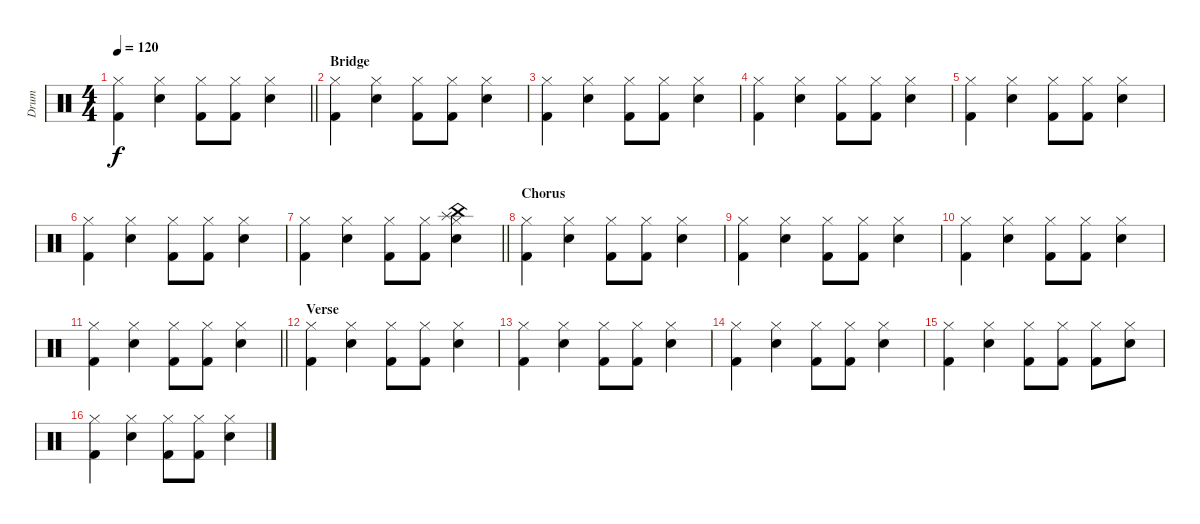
\track ("Drum" "Drum") {instrument percussion}
\staff {score}
\articulation defaults
\ts (4 4)
\tempo 120
\clef neutral
\barLineRight lightlight
\ks c
("Hi-Hat (closed)" "Kick (hit) 2").4{dy f} ("Snare (hit) 2" "Hi-Hat (closed)").4 ("Hi-Hat (closed)" "Kick (hit) 2").8 ("Hi-Hat (closed)" "Kick (hit) 2").8 ("Snare (hit) 2" "Hi-Hat (closed)").4 |
\section ("" "Bridge")
("Hi-Hat (closed)" "Kick (hit) 2").4 ("Snare (hit) 2" "Hi-Hat (closed)").4 ("Hi-Hat (closed)" "Kick (hit) 2").8 ("Hi-Hat (closed)" "Kick (hit) 2").8 ("Snare (hit) 2" "Hi-Hat (closed)").4 |
("Hi-Hat (closed)" "Kick (hit) 2").4 ("Snare (hit) 2" "Hi-Hat (closed)").4 ("Hi-Hat (closed)" "Kick (hit) 2").8 ("Hi-Hat (closed)" "Kick (hit) 2").8 ("Snare (hit) 2" "Hi-Hat (closed)").4 |
("Hi-Hat (closed)" "Kick (hit) 2").4 ("Snare (hit) 2" "Hi-Hat (closed)").4 ("Hi-Hat (closed)" "Kick (hit) 2").8 ("Hi-Hat (closed)" "Kick (hit) 2").8 ("Snare (hit) 2" "Hi-Hat (closed)").4 |
("Hi-Hat (closed)" "Kick (hit) 2").4 ("Snare (hit) 2" "Hi-Hat (closed)").4 ("Hi-Hat (closed)" "Kick (hit) 2").8 ("Hi-Hat (closed)" "Kick (hit) 2").8 ("Snare (hit) 2" "Hi-Hat (closed)").4 |
("Hi-Hat (closed)" "Kick (hit) 2").4 ("Snare (hit) 2" "Hi-Hat (closed)").4 ("Hi-Hat (closed)" "Kick (hit) 2").8 ("Hi-Hat (closed)" "Kick (hit) 2").8 ("Snare (hit) 2" "Hi-Hat (closed)").4 |
\barLineRight lightlight
("Hi-Hat (closed)" "Kick (hit) 2").4 ("Snare (hit) 2" "Hi-Hat (closed)").4 ("Hi-Hat (closed)" "Kick (hit) 2").8 ("Hi-Hat (closed)" "Kick (hit) 2").8 ("Snare (hit) 2" "Hi-Hat (closed)" "Splash (hit)" "China (hit)").4 |
\section ("" "Chorus")
("Hi-Hat (closed)" "Kick (hit) 2").4 ("Snare (hit) 2" "Hi-Hat (closed)").4 ("Hi-Hat (closed)" "Kick (hit) 2").8 ("Hi-Hat (closed)" "Kick (hit) 2").8 ("Snare (hit) 2" "Hi-Hat (closed)").4 |
("Hi-Hat (closed)" "Kick (hit) 2").4 ("Snare (hit) 2" "Hi-Hat (closed)").4 ("Hi-Hat (closed)" "Kick (hit) 2").8 ("Hi-Hat (closed)" "Kick (hit) 2").8 ("Snare (hit) 2" "Hi-Hat (closed)").4 |
("Hi-Hat (closed)" "Kick (hit) 2").4 ("Snare (hit) 2" "Hi-Hat (closed)").4 ("Hi-Hat (closed)" "Kick (hit) 2").8 ("Hi-Hat (closed)" "Kick (hit) 2").8 ("Snare (hit) 2" "Hi-Hat (closed)").4 |
\barLineRight lightlight
("Hi-Hat (closed)" "Kick (hit) 2").4 ("Snare (hit) 2" "Hi-Hat (closed)").4 ("Hi-Hat (closed)" "Kick (hit) 2").8 ("Hi-Hat (closed)" "Kick (hit) 2").8 ("Snare (hit) 2" "Hi-Hat (closed)").4 |
\section ("" "Verse")
("Hi-Hat (closed)" "Kick (hit) 2").4 ("Snare (hit) 2" "Hi-Hat (closed)").4 ("Hi-Hat (closed)" "Kick (hit) 2").8 ("Hi-Hat (closed)" "Kick (hit) 2").8 ("Snare (hit) 2" "Hi-Hat (closed)").4 |
("Hi-Hat (closed)" "Kick (hit) 2").4 ("Snare (hit) 2" "Hi-Hat (closed)").4 ("Hi-Hat (closed)" "Kick (hit) 2").8 ("Hi-Hat (closed)" "Kick (hit) 2").8 ("Snare (hit) 2" "Hi-Hat (closed)").4 |
("Hi-Hat (closed)" "Kick (hit) 2").4 ("Snare (hit) 2" "Hi-Hat (closed)").4 ("Hi-Hat (closed)" "Kick (hit) 2").8 ("Hi-Hat (closed)" "Kick (hit) 2").8 ("Snare (hit) 2" "Hi-Hat (closed)").4 |
("Hi-Hat (closed)" "Kick (hit) 2").4 ("Snare (hit) 2" "Hi-Hat (closed)").4 ("Hi-Hat (closed)" "Kick (hit) 2").8 ("Hi-Hat (closed)" "Kick (hit) 2").8 ("Hi-Hat (closed)" "Kick (hit) 2").8 ("Snare (hit) 2" "Hi-Hat (closed)").8 |
("Hi-Hat (closed)" "Kick (hit) 2").4 ("Snare (hit) 2" "Hi-Hat (closed)").4 ("Hi-Hat (closed)" "Kick (hit) 2").8 ("Hi-Hat (closed)" "Kick (hit) 2").8 ("Snare (hit) 2" "Hi-Hat (closed)").4
